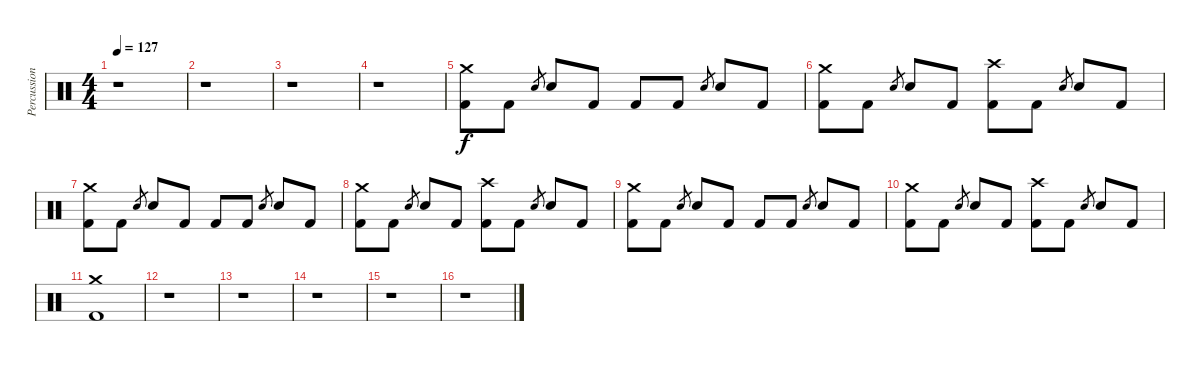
\track ("Percussion" "Percussion") {instrument percussion}
\staff {score}
\articulation defaults
\ts (4 4)
\tempo 127
\clef neutral
\ks c
r.1{dy f} |
r.1 |
r.1 |
r.1 |
("Crash medium (hit)" "Kick (hit) 2").8 "Kick (hit) 2".8 "Electric Snare (hit)".8{gr} "Electric Snare (hit)".8 "Kick (hit) 2".8 "Kick (hit) 2".8 "Kick (hit) 2".8 "Electric Snare (hit)".8{gr} "Electric Snare (hit)".8 "Kick (hit) 2".8 |
("Crash medium (hit)" "Kick (hit) 2").8 "Kick (hit) 2".8 "Electric Snare (hit)".8{gr} "Electric Snare (hit)".8 "Kick (hit) 2".8 ("Crash high (hit)" "Kick (hit) 2").8 "Kick (hit) 2".8 "Electric Snare (hit)".8{gr} "Electric Snare (hit)".8 "Kick (hit) 2".8 |
("Crash medium (hit)" "Kick (hit) 2").8 "Kick (hit) 2".8 "Electric Snare (hit)".8{gr} "Electric Snare (hit)".8 "Kick (hit) 2".8 "Kick (hit) 2".8 "Kick (hit) 2".8 "Electric Snare (hit)".8{gr} "Electric Snare (hit)".8 "Kick (hit) 2".8 |
("Crash medium (hit)" "Kick (hit) 2").8 "Kick (hit) 2".8 "Electric Snare (hit)".8{gr} "Electric Snare (hit)".8 "Kick (hit) 2".8 ("Crash high (hit)" "Kick (hit) 2").8 "Kick (hit) 2".8 "Electric Snare (hit)".8{gr} "Electric Snare (hit)".8 "Kick (hit) 2".8 |
("Crash medium (hit)" "Kick (hit) 2").8 "Kick (hit) 2".8 "Electric Snare (hit)".8{gr} "Electric Snare (hit)".8 "Kick (hit) 2".8 "Kick (hit) 2".8 "Kick (hit) 2".8 "Electric Snare (hit)".8{gr} "Electric Snare (hit)".8 "Kick (hit) 2".8 |
("Crash medium (hit)" "Kick (hit) 2").8 "Kick (hit) 2".8 "Electric Snare (hit)".8{gr} "Electric Snare (hit)".8 "Kick (hit) 2".8 ("Crash high (hit)" "Kick (hit) 2").8 "Kick (hit) 2".8 "Electric Snare (hit)".8{gr} "Electric Snare (hit)".8 "Kick (hit) 2".8 |
("Crash medium (hit)" "Kick (hit) 2").1 |
r.1 |
r.1 |
r.1 |
r.1 |
r.1
